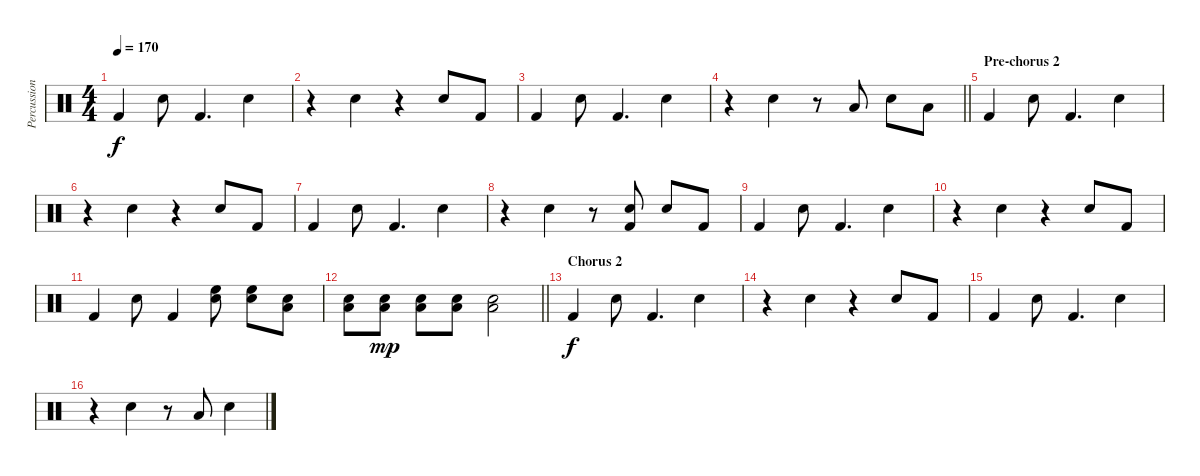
\track ("Percussion" "Percussion") {instrument percussion}
\staff {score}
\articulation defaults
\ts (4 4)
\tempo 170
\clef neutral
\ks c "Kick (hit) 2".4{dy f} "Hand Clap (hit)".8 "Kick (hit) 2".4{d} "Hand Clap (hit)".4
|
r.4 "Hand Clap (hit)".4 r.4 "Hand Clap (hit)".8 "Kick (hit) 2".8 |
"Kick (hit) 2".4 "Hand Clap (hit)".8 "Kick (hit) 2".4{d} "Hand Clap (hit)".4 |
\barLineRight lightlight
r.4 "Hand Clap (hit)".4 r.8 "Low Tom (hit)".8 "Hand Clap (hit)".8 "Low Tom (hit)".8 |
\section ("" "Pre-chorus 2")
"Kick (hit) 2".4 "Hand Clap (hit)".8 "Kick (hit) 2".4{d} "Hand Clap (hit)".4 |
r.4 "Hand Clap (hit)".4 r.4 "Hand Clap (hit)".8 "Kick (hit) 2".8 |
"Kick (hit) 2".4 "Hand Clap (hit)".8 "Kick (hit) 2".4{d} "Hand Clap (hit)".4 |
r.4 "Hand Clap (hit)".4 r.8 ("Hand Clap (hit)" "Kick (hit) 2").8 "Hand Clap (hit)".8 "Kick (hit) 2".8 |
"Kick (hit) 2".4 "Hand Clap (hit)".8 "Kick (hit) 2".4{d} "Hand Clap (hit)".4 |
r.4 "Hand Clap (hit)".4 r.4 "Hand Clap (hit)".8 "Kick (hit) 2".8 |
"Kick (hit) 2".4 "Hand Clap (hit)".8 "Kick (hit) 2".4 ("High Floor Tom (hit)" "Electric Snare (hit)").8 ("High Floor Tom (hit)" "Electric Snare (hit)").8 ("Low Tom (hit)" "Electric Snare (hit)").8 |
\barLineRight lightlight
("Low Tom (hit)" "Electric Snare (hit)").8 ("Low Tom (hit)" "Electric Snare (hit)").8{dy mp} ("Low Tom (hit)" "Electric Snare (hit)").8 ("Low Tom (hit)" "Electric Snare (hit)").8 ("Low Tom (hit)" "Electric Snare (hit)").2 |
\section ("" "Chorus 2")
"Kick (hit) 2".4{dy f} "Hand Clap (hit)".8 "Kick (hit) 2".4{d} "Hand Clap (hit)".4 |
r.4 "Hand Clap (hit)".4 r.4 "Hand Clap (hit)".8 "Kick (hit) 2".8 |
"Kick (hit) 2".4 "Hand Clap (hit)".8 "Kick (hit) 2".4{d} "Hand Clap (hit)".4 |
r.4 "Hand Clap (hit)".4 r.8 "Low Tom (hit)".8 "Hand Clap (hit)".4
